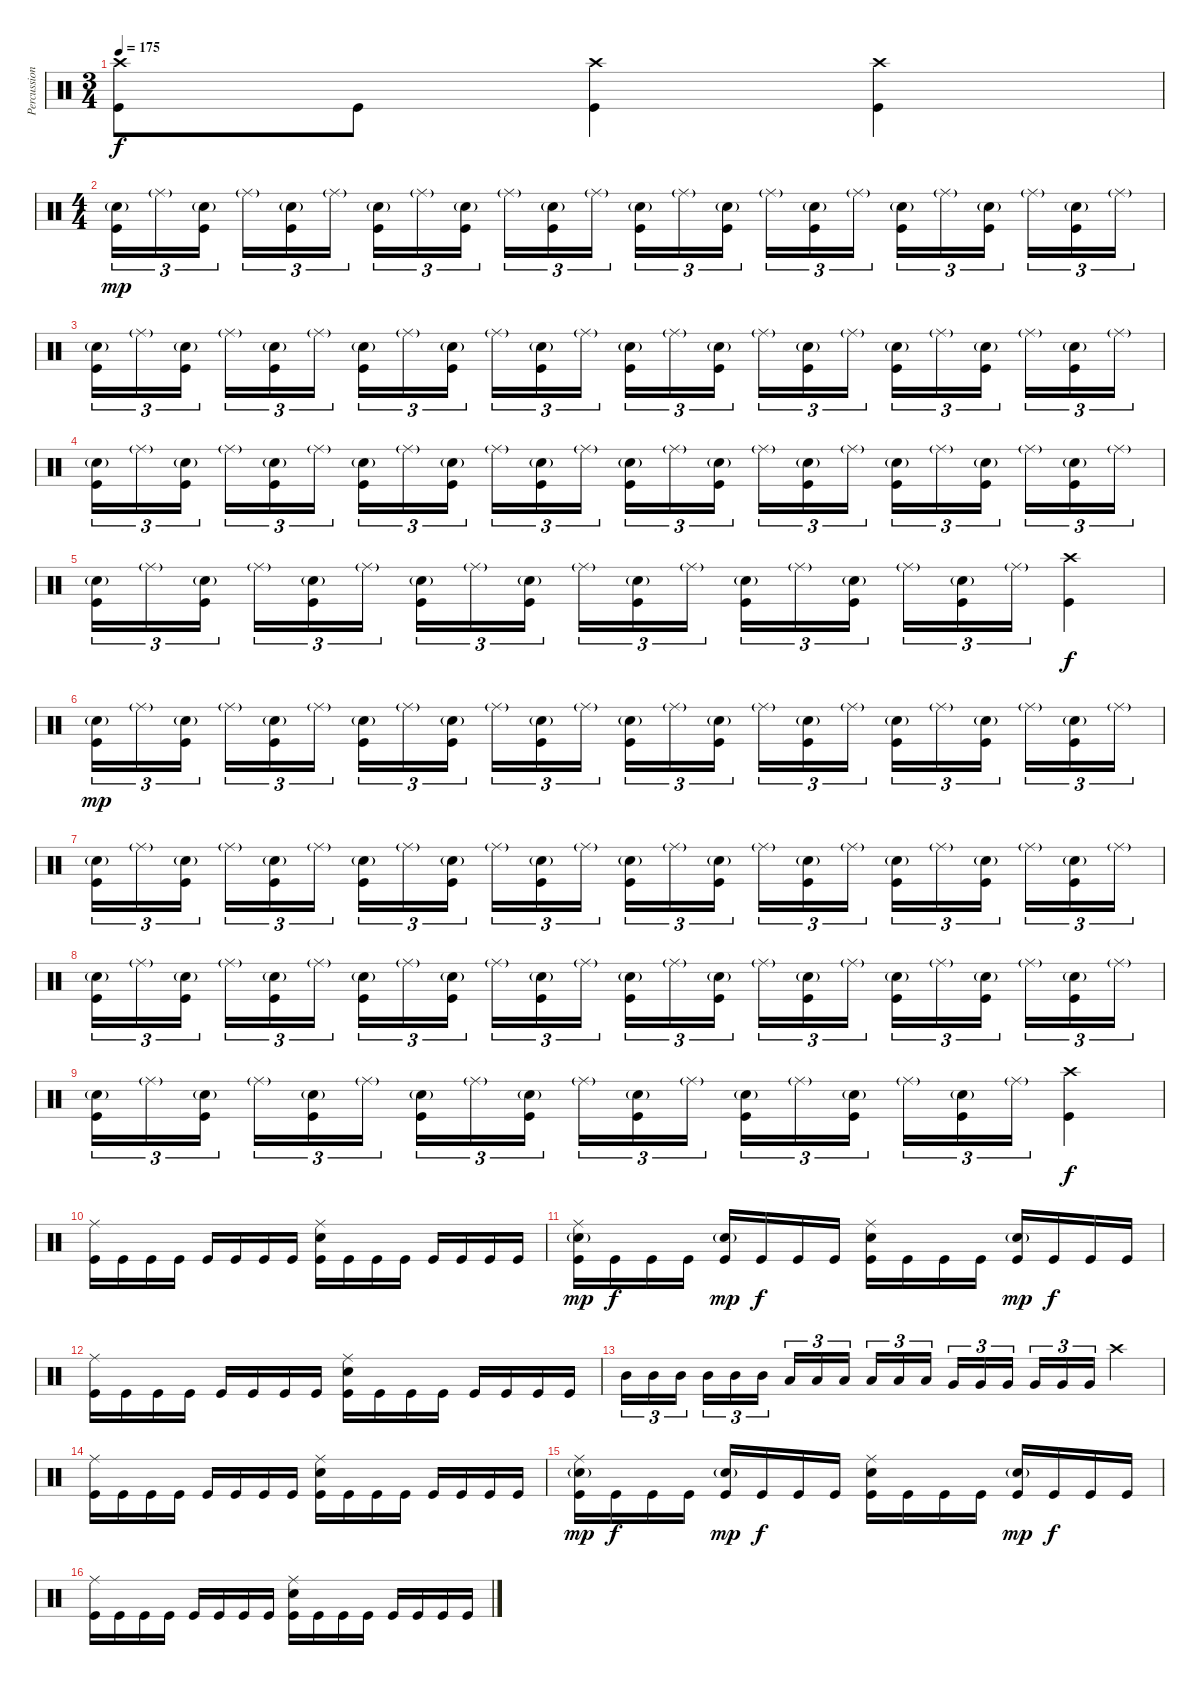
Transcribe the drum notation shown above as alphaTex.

\track ("Percussion" "Percussion") {instrument percussion}
\staff {score}
\articulation defaults
\ts (3 4)
\tempo 175
\clef neutral
\ks c
("Crash high (hit)" "Kick (hit)").8{dy f} "Kick (hit)".8 ("Crash high (hit)" "Kick (hit)").4 ("Crash high (hit)" "Kick (hit)").4 |
\ts (4 4)
("Electric Snare (hit)"{g} "Kick (hit)").16{tu (3 2) dy mp} "Ride (middle)"{g}.16{tu (3 2)} ("Electric Snare (hit)"{g} "Kick (hit)").16{tu (3 2) beam splitsecondary} "Ride (middle)"{g}.16{tu (3 2)} ("Electric Snare (hit)"{g} "Kick (hit)").16{tu (3 2)} "Ride (middle)"{g}.16{tu (3 2)} ("Electric Snare (hit)"{g} "Kick (hit)").16{tu (3 2)} "Ride (middle)"{g}.16{tu (3 2)} ("Electric Snare (hit)"{g} "Kick (hit)").16{tu (3 2) beam splitsecondary} "Ride (middle)"{g}.16{tu (3 2)} ("Electric Snare (hit)"{g} "Kick (hit)").16{tu (3 2)} "Ride (middle)"{g}.16{tu (3 2)} ("Electric Snare (hit)"{g} "Kick (hit)").16{tu (3 2)} "Ride (middle)"{g}.16{tu (3 2)} ("Electric Snare (hit)"{g} "Kick (hit)").16{tu (3 2) beam splitsecondary} "Ride (middle)"{g}.16{tu (3 2)} ("Electric Snare (hit)"{g} "Kick (hit)").16{tu (3 2)} "Ride (middle)"{g}.16{tu (3 2)} ("Electric Snare (hit)"{g} "Kick (hit)").16{tu (3 2)} "Ride (middle)"{g}.16{tu (3 2)} ("Electric Snare (hit)"{g} "Kick (hit)").16{tu (3 2) beam splitsecondary} "Ride (middle)"{g}.16{tu (3 2)} ("Electric Snare (hit)"{g} "Kick (hit)").16{tu (3 2)} "Ride (middle)"{g}.16{tu (3 2)} |
("Electric Snare (hit)"{g} "Kick (hit)").16{tu (3 2)} "Ride (middle)"{g}.16{tu (3 2)} ("Electric Snare (hit)"{g} "Kick (hit)").16{tu (3 2) beam splitsecondary} "Ride (middle)"{g}.16{tu (3 2)} ("Electric Snare (hit)"{g} "Kick (hit)").16{tu (3 2)} "Ride (middle)"{g}.16{tu (3 2)} ("Electric Snare (hit)"{g} "Kick (hit)").16{tu (3 2)} "Ride (middle)"{g}.16{tu (3 2)} ("Electric Snare (hit)"{g} "Kick (hit)").16{tu (3 2) beam splitsecondary} "Ride (middle)"{g}.16{tu (3 2)} ("Electric Snare (hit)"{g} "Kick (hit)").16{tu (3 2)} "Ride (middle)"{g}.16{tu (3 2)} ("Electric Snare (hit)"{g} "Kick (hit)").16{tu (3 2)} "Ride (middle)"{g}.16{tu (3 2)} ("Electric Snare (hit)"{g} "Kick (hit)").16{tu (3 2) beam splitsecondary} "Ride (middle)"{g}.16{tu (3 2)} ("Electric Snare (hit)"{g} "Kick (hit)").16{tu (3 2)} "Ride (middle)"{g}.16{tu (3 2)} ("Electric Snare (hit)"{g} "Kick (hit)").16{tu (3 2)} "Ride (middle)"{g}.16{tu (3 2)} ("Electric Snare (hit)"{g} "Kick (hit)").16{tu (3 2) beam splitsecondary} "Ride (middle)"{g}.16{tu (3 2)} ("Electric Snare (hit)"{g} "Kick (hit)").16{tu (3 2)} "Ride (middle)"{g}.16{tu (3 2)} |
("Electric Snare (hit)"{g} "Kick (hit)").16{tu (3 2)} "Ride (middle)"{g}.16{tu (3 2)} ("Electric Snare (hit)"{g} "Kick (hit)").16{tu (3 2) beam splitsecondary} "Ride (middle)"{g}.16{tu (3 2)} ("Electric Snare (hit)"{g} "Kick (hit)").16{tu (3 2)} "Ride (middle)"{g}.16{tu (3 2)} ("Electric Snare (hit)"{g} "Kick (hit)").16{tu (3 2)} "Ride (middle)"{g}.16{tu (3 2)} ("Electric Snare (hit)"{g} "Kick (hit)").16{tu (3 2) beam splitsecondary} "Ride (middle)"{g}.16{tu (3 2)} ("Electric Snare (hit)"{g} "Kick (hit)").16{tu (3 2)} "Ride (middle)"{g}.16{tu (3 2)} ("Electric Snare (hit)"{g} "Kick (hit)").16{tu (3 2)} "Ride (middle)"{g}.16{tu (3 2)} ("Electric Snare (hit)"{g} "Kick (hit)").16{tu (3 2) beam splitsecondary} "Ride (middle)"{g}.16{tu (3 2)} ("Electric Snare (hit)"{g} "Kick (hit)").16{tu (3 2)} "Ride (middle)"{g}.16{tu (3 2)} ("Electric Snare (hit)"{g} "Kick (hit)").16{tu (3 2)} "Ride (middle)"{g}.16{tu (3 2)} ("Electric Snare (hit)"{g} "Kick (hit)").16{tu (3 2) beam splitsecondary} "Ride (middle)"{g}.16{tu (3 2)} ("Electric Snare (hit)"{g} "Kick (hit)").16{tu (3 2)} "Ride (middle)"{g}.16{tu (3 2)} |
("Electric Snare (hit)"{g} "Kick (hit)").16{tu (3 2)} "Ride (middle)"{g}.16{tu (3 2)} ("Electric Snare (hit)"{g} "Kick (hit)").16{tu (3 2) beam splitsecondary} "Ride (middle)"{g}.16{tu (3 2)} ("Electric Snare (hit)"{g} "Kick (hit)").16{tu (3 2)} "Ride (middle)"{g}.16{tu (3 2)} ("Electric Snare (hit)"{g} "Kick (hit)").16{tu (3 2)} "Ride (middle)"{g}.16{tu (3 2)} ("Electric Snare (hit)"{g} "Kick (hit)").16{tu (3 2) beam splitsecondary} "Ride (middle)"{g}.16{tu (3 2)} ("Electric Snare (hit)"{g} "Kick (hit)").16{tu (3 2)} "Ride (middle)"{g}.16{tu (3 2)} ("Electric Snare (hit)"{g} "Kick (hit)").16{tu (3 2)} "Ride (middle)"{g}.16{tu (3 2)} ("Electric Snare (hit)"{g} "Kick (hit)").16{tu (3 2) beam splitsecondary} "Ride (middle)"{g}.16{tu (3 2)} ("Electric Snare (hit)"{g} "Kick (hit)").16{tu (3 2)} "Ride (middle)"{g}.16{tu (3 2)} ("Crash high (hit)" "Kick (hit)").4{dy f} |
("Electric Snare (hit)"{g} "Kick (hit)").16{tu (3 2) dy mp} "Ride (middle)"{g}.16{tu (3 2)} ("Electric Snare (hit)"{g} "Kick (hit)").16{tu (3 2) beam splitsecondary} "Ride (middle)"{g}.16{tu (3 2)} ("Electric Snare (hit)"{g} "Kick (hit)").16{tu (3 2)} "Ride (middle)"{g}.16{tu (3 2)} ("Electric Snare (hit)"{g} "Kick (hit)").16{tu (3 2)} "Ride (middle)"{g}.16{tu (3 2)} ("Electric Snare (hit)"{g} "Kick (hit)").16{tu (3 2) beam splitsecondary} "Ride (middle)"{g}.16{tu (3 2)} ("Electric Snare (hit)"{g} "Kick (hit)").16{tu (3 2)} "Ride (middle)"{g}.16{tu (3 2)} ("Electric Snare (hit)"{g} "Kick (hit)").16{tu (3 2)} "Ride (middle)"{g}.16{tu (3 2)} ("Electric Snare (hit)"{g} "Kick (hit)").16{tu (3 2) beam splitsecondary} "Ride (middle)"{g}.16{tu (3 2)} ("Electric Snare (hit)"{g} "Kick (hit)").16{tu (3 2)} "Ride (middle)"{g}.16{tu (3 2)} ("Electric Snare (hit)"{g} "Kick (hit)").16{tu (3 2)} "Ride (middle)"{g}.16{tu (3 2)} ("Electric Snare (hit)"{g} "Kick (hit)").16{tu (3 2) beam splitsecondary} "Ride (middle)"{g}.16{tu (3 2)} ("Electric Snare (hit)"{g} "Kick (hit)").16{tu (3 2)} "Ride (middle)"{g}.16{tu (3 2)} |
("Electric Snare (hit)"{g} "Kick (hit)").16{tu (3 2)} "Ride (middle)"{g}.16{tu (3 2)} ("Electric Snare (hit)"{g} "Kick (hit)").16{tu (3 2) beam splitsecondary} "Ride (middle)"{g}.16{tu (3 2)} ("Electric Snare (hit)"{g} "Kick (hit)").16{tu (3 2)} "Ride (middle)"{g}.16{tu (3 2)} ("Electric Snare (hit)"{g} "Kick (hit)").16{tu (3 2)} "Ride (middle)"{g}.16{tu (3 2)} ("Electric Snare (hit)"{g} "Kick (hit)").16{tu (3 2) beam splitsecondary} "Ride (middle)"{g}.16{tu (3 2)} ("Electric Snare (hit)"{g} "Kick (hit)").16{tu (3 2)} "Ride (middle)"{g}.16{tu (3 2)} ("Electric Snare (hit)"{g} "Kick (hit)").16{tu (3 2)} "Ride (middle)"{g}.16{tu (3 2)} ("Electric Snare (hit)"{g} "Kick (hit)").16{tu (3 2) beam splitsecondary} "Ride (middle)"{g}.16{tu (3 2)} ("Electric Snare (hit)"{g} "Kick (hit)").16{tu (3 2)} "Ride (middle)"{g}.16{tu (3 2)} ("Electric Snare (hit)"{g} "Kick (hit)").16{tu (3 2)} "Ride (middle)"{g}.16{tu (3 2)} ("Electric Snare (hit)"{g} "Kick (hit)").16{tu (3 2) beam splitsecondary} "Ride (middle)"{g}.16{tu (3 2)} ("Electric Snare (hit)"{g} "Kick (hit)").16{tu (3 2)} "Ride (middle)"{g}.16{tu (3 2)} |
("Electric Snare (hit)"{g} "Kick (hit)").16{tu (3 2)} "Ride (middle)"{g}.16{tu (3 2)} ("Electric Snare (hit)"{g} "Kick (hit)").16{tu (3 2) beam splitsecondary} "Ride (middle)"{g}.16{tu (3 2)} ("Electric Snare (hit)"{g} "Kick (hit)").16{tu (3 2)} "Ride (middle)"{g}.16{tu (3 2)} ("Electric Snare (hit)"{g} "Kick (hit)").16{tu (3 2)} "Ride (middle)"{g}.16{tu (3 2)} ("Electric Snare (hit)"{g} "Kick (hit)").16{tu (3 2) beam splitsecondary} "Ride (middle)"{g}.16{tu (3 2)} ("Electric Snare (hit)"{g} "Kick (hit)").16{tu (3 2)} "Ride (middle)"{g}.16{tu (3 2)} ("Electric Snare (hit)"{g} "Kick (hit)").16{tu (3 2)} "Ride (middle)"{g}.16{tu (3 2)} ("Electric Snare (hit)"{g} "Kick (hit)").16{tu (3 2) beam splitsecondary} "Ride (middle)"{g}.16{tu (3 2)} ("Electric Snare (hit)"{g} "Kick (hit)").16{tu (3 2)} "Ride (middle)"{g}.16{tu (3 2)} ("Electric Snare (hit)"{g} "Kick (hit)").16{tu (3 2)} "Ride (middle)"{g}.16{tu (3 2)} ("Electric Snare (hit)"{g} "Kick (hit)").16{tu (3 2) beam splitsecondary} "Ride (middle)"{g}.16{tu (3 2)} ("Electric Snare (hit)"{g} "Kick (hit)").16{tu (3 2)} "Ride (middle)"{g}.16{tu (3 2)} |
("Electric Snare (hit)"{g} "Kick (hit)").16{tu (3 2)} "Ride (middle)"{g}.16{tu (3 2)} ("Electric Snare (hit)"{g} "Kick (hit)").16{tu (3 2) beam splitsecondary} "Ride (middle)"{g}.16{tu (3 2)} ("Electric Snare (hit)"{g} "Kick (hit)").16{tu (3 2)} "Ride (middle)"{g}.16{tu (3 2)} ("Electric Snare (hit)"{g} "Kick (hit)").16{tu (3 2)} "Ride (middle)"{g}.16{tu (3 2)} ("Electric Snare (hit)"{g} "Kick (hit)").16{tu (3 2) beam splitsecondary} "Ride (middle)"{g}.16{tu (3 2)} ("Electric Snare (hit)"{g} "Kick (hit)").16{tu (3 2)} "Ride (middle)"{g}.16{tu (3 2)} ("Electric Snare (hit)"{g} "Kick (hit)").16{tu (3 2)} "Ride (middle)"{g}.16{tu (3 2)} ("Electric Snare (hit)"{g} "Kick (hit)").16{tu (3 2) beam splitsecondary} "Ride (middle)"{g}.16{tu (3 2)} ("Electric Snare (hit)"{g} "Kick (hit)").16{tu (3 2)} "Ride (middle)"{g}.16{tu (3 2)} ("Crash high (hit)" "Kick (hit)").4{dy f} |
("Ride (middle)" "Kick (hit)").16 "Kick (hit)".16 "Kick (hit)".16 "Kick (hit)".16 "Kick (hit)".16 "Kick (hit)".16 "Kick (hit)".16 "Kick (hit)".16 ("Ride (middle)" "Electric Snare (hit)" "Kick (hit)").16 "Kick (hit)".16 "Kick (hit)".16 "Kick (hit)".16 "Kick (hit)".16 "Kick (hit)".16 "Kick (hit)".16 "Kick (hit)".16 |
("Ride (middle)" "Electric Snare (hit)"{g} "Kick (hit)").16{dy mp} "Kick (hit)".16{dy f} "Kick (hit)".16 "Kick (hit)".16 ("Electric Snare (hit)"{g} "Kick (hit)").16{dy mp} "Kick (hit)".16{dy f} "Kick (hit)".16 "Kick (hit)".16 ("Ride (middle)" "Electric Snare (hit)" "Kick (hit)").16 "Kick (hit)".16 "Kick (hit)".16 "Kick (hit)".16 ("Electric Snare (hit)"{g} "Kick (hit)").16{dy mp} "Kick (hit)".16{dy f} "Kick (hit)".16 "Kick (hit)".16 |
("Ride (middle)" "Kick (hit)").16 "Kick (hit)".16 "Kick (hit)".16 "Kick (hit)".16 "Kick (hit)".16 "Kick (hit)".16 "Kick (hit)".16 "Kick (hit)".16 ("Ride (middle)" "Electric Snare (hit)" "Kick (hit)").16 "Kick (hit)".16 "Kick (hit)".16 "Kick (hit)".16 "Kick (hit)".16 "Kick (hit)".16 "Kick (hit)".16 "Kick (hit)".16 |
"Mid Tom (hit)".16{tu (3 2)} "Mid Tom (hit)".16{tu (3 2)} "Mid Tom (hit)".16{tu (3 2) beam splitsecondary} "Mid Tom (hit)".16{tu (3 2)} "Mid Tom (hit)".16{tu (3 2)} "Mid Tom (hit)".16{tu (3 2)} "Low Tom (hit)".16{tu (3 2)} "Low Tom (hit)".16{tu (3 2)} "Low Tom (hit)".16{tu (3 2) beam splitsecondary} "Low Tom (hit)".16{tu (3 2)} "Low Tom (hit)".16{tu (3 2)} "Low Tom (hit)".16{tu (3 2)} "Very Low Tom (hit)".16{tu (3 2)} "Very Low Tom (hit)".16{tu (3 2)} "Very Low Tom (hit)".16{tu (3 2) beam splitsecondary} "Very Low Tom (hit)".16{tu (3 2)} "Very Low Tom (hit)".16{tu (3 2)} "Very Low Tom (hit)".16{tu (3 2)} "Crash high (hit)".4 |
("Ride (middle)" "Kick (hit)").16 "Kick (hit)".16 "Kick (hit)".16 "Kick (hit)".16 "Kick (hit)".16 "Kick (hit)".16 "Kick (hit)".16 "Kick (hit)".16 ("Ride (middle)" "Electric Snare (hit)" "Kick (hit)").16 "Kick (hit)".16 "Kick (hit)".16 "Kick (hit)".16 "Kick (hit)".16 "Kick (hit)".16 "Kick (hit)".16 "Kick (hit)".16 |
("Ride (middle)" "Electric Snare (hit)"{g} "Kick (hit)").16{dy mp} "Kick (hit)".16{dy f} "Kick (hit)".16 "Kick (hit)".16 ("Electric Snare (hit)"{g} "Kick (hit)").16{dy mp} "Kick (hit)".16{dy f} "Kick (hit)".16 "Kick (hit)".16 ("Ride (middle)" "Electric Snare (hit)" "Kick (hit)").16 "Kick (hit)".16 "Kick (hit)".16 "Kick (hit)".16 ("Electric Snare (hit)"{g} "Kick (hit)").16{dy mp} "Kick (hit)".16{dy f} "Kick (hit)".16 "Kick (hit)".16 |
("Ride (middle)" "Kick (hit)").16 "Kick (hit)".16 "Kick (hit)".16 "Kick (hit)".16 "Kick (hit)".16 "Kick (hit)".16 "Kick (hit)".16 "Kick (hit)".16 ("Ride (middle)" "Electric Snare (hit)" "Kick (hit)").16 "Kick (hit)".16 "Kick (hit)".16 "Kick (hit)".16 "Kick (hit)".16 "Kick (hit)".16 "Kick (hit)".16 "Kick (hit)".16
